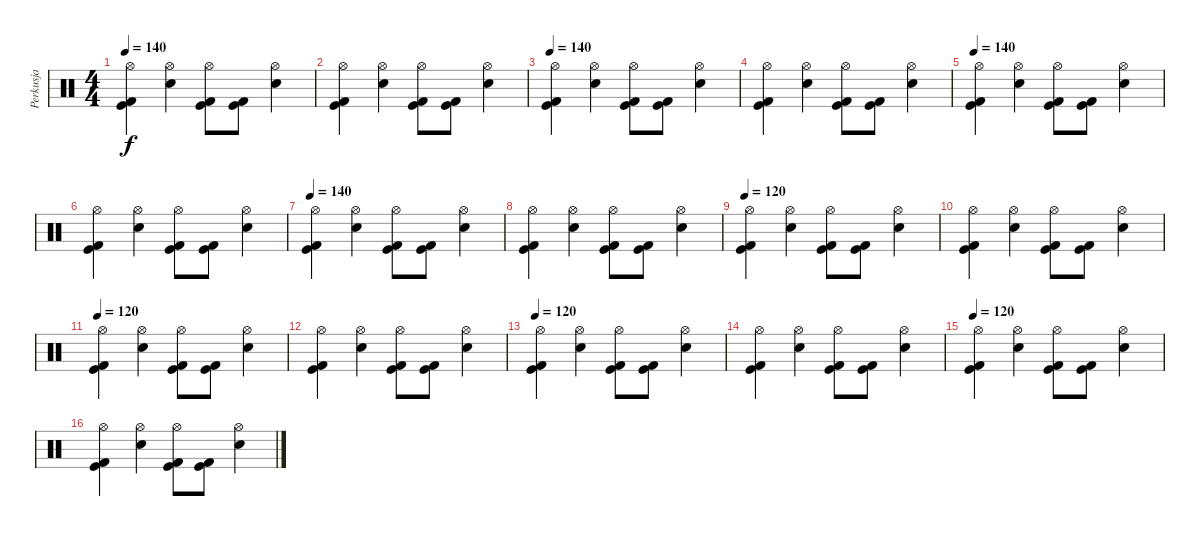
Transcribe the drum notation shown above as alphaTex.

\track ("Perkusja" "Perkusja") {instrument percussion}
\staff {score}
\articulation defaults
\ts (4 4)
\tempo 140
\clef neutral
\ks c
("Hi-Hat (open)" "Kick (hit)" "Kick (hit) 2").4{dy f} ("Hi-Hat (open)" "Snare (hit) 2").4 ("Hi-Hat (open)" "Kick (hit)" "Kick (hit) 2").8 ("Kick (hit)" "Kick (hit) 2").8 ("Hi-Hat (open)" "Snare (hit) 2").4 |
("Hi-Hat (open)" "Kick (hit)" "Kick (hit) 2").4 ("Hi-Hat (open)" "Snare (hit) 2").4 ("Hi-Hat (open)" "Kick (hit)" "Kick (hit) 2").8 ("Kick (hit)" "Kick (hit) 2").8 ("Hi-Hat (open)" "Snare (hit) 2").4 |
\tempo 140
("Hi-Hat (open)" "Kick (hit)" "Kick (hit) 2").4 ("Hi-Hat (open)" "Snare (hit) 2").4 ("Hi-Hat (open)" "Kick (hit)" "Kick (hit) 2").8 ("Kick (hit)" "Kick (hit) 2").8 ("Hi-Hat (open)" "Snare (hit) 2").4 |
("Hi-Hat (open)" "Kick (hit)" "Kick (hit) 2").4 ("Hi-Hat (open)" "Snare (hit) 2").4 ("Hi-Hat (open)" "Kick (hit)" "Kick (hit) 2").8 ("Kick (hit)" "Kick (hit) 2").8 ("Hi-Hat (open)" "Snare (hit) 2").4 |
\tempo 140
("Hi-Hat (open)" "Kick (hit)" "Kick (hit) 2").4 ("Hi-Hat (open)" "Snare (hit) 2").4 ("Hi-Hat (open)" "Kick (hit)" "Kick (hit) 2").8 ("Kick (hit)" "Kick (hit) 2").8 ("Hi-Hat (open)" "Snare (hit) 2").4 |
("Hi-Hat (open)" "Kick (hit)" "Kick (hit) 2").4 ("Hi-Hat (open)" "Snare (hit) 2").4 ("Hi-Hat (open)" "Kick (hit)" "Kick (hit) 2").8 ("Kick (hit)" "Kick (hit) 2").8 ("Hi-Hat (open)" "Snare (hit) 2").4 |
\tempo 140
("Hi-Hat (open)" "Kick (hit)" "Kick (hit) 2").4 ("Hi-Hat (open)" "Snare (hit) 2").4 ("Hi-Hat (open)" "Kick (hit)" "Kick (hit) 2").8 ("Kick (hit)" "Kick (hit) 2").8 ("Hi-Hat (open)" "Snare (hit) 2").4 |
("Hi-Hat (open)" "Kick (hit)" "Kick (hit) 2").4 ("Hi-Hat (open)" "Snare (hit) 2").4 ("Hi-Hat (open)" "Kick (hit)" "Kick (hit) 2").8 ("Kick (hit)" "Kick (hit) 2").8 ("Hi-Hat (open)" "Snare (hit) 2").4 |
\tempo 120
("Hi-Hat (open)" "Kick (hit)" "Kick (hit) 2").4 ("Hi-Hat (open)" "Snare (hit) 2").4 ("Hi-Hat (open)" "Kick (hit)" "Kick (hit) 2").8 ("Kick (hit)" "Kick (hit) 2").8 ("Hi-Hat (open)" "Snare (hit) 2").4 |
("Hi-Hat (open)" "Kick (hit)" "Kick (hit) 2").4 ("Hi-Hat (open)" "Snare (hit) 2").4 ("Hi-Hat (open)" "Kick (hit)" "Kick (hit) 2").8 ("Kick (hit)" "Kick (hit) 2").8 ("Hi-Hat (open)" "Snare (hit) 2").4 |
\tempo 120
("Hi-Hat (open)" "Kick (hit)" "Kick (hit) 2").4 ("Hi-Hat (open)" "Snare (hit) 2").4 ("Hi-Hat (open)" "Kick (hit)" "Kick (hit) 2").8 ("Kick (hit)" "Kick (hit) 2").8 ("Hi-Hat (open)" "Snare (hit) 2").4 |
("Hi-Hat (open)" "Kick (hit)" "Kick (hit) 2").4 ("Hi-Hat (open)" "Snare (hit) 2").4 ("Hi-Hat (open)" "Kick (hit)" "Kick (hit) 2").8 ("Kick (hit)" "Kick (hit) 2").8 ("Hi-Hat (open)" "Snare (hit) 2").4 |
\tempo 120
("Hi-Hat (open)" "Kick (hit)" "Kick (hit) 2").4 ("Hi-Hat (open)" "Snare (hit) 2").4 ("Hi-Hat (open)" "Kick (hit)" "Kick (hit) 2").8 ("Kick (hit)" "Kick (hit) 2").8 ("Hi-Hat (open)" "Snare (hit) 2").4 |
("Hi-Hat (open)" "Kick (hit)" "Kick (hit) 2").4 ("Hi-Hat (open)" "Snare (hit) 2").4 ("Hi-Hat (open)" "Kick (hit)" "Kick (hit) 2").8 ("Kick (hit)" "Kick (hit) 2").8 ("Hi-Hat (open)" "Snare (hit) 2").4 |
\tempo 120
("Hi-Hat (open)" "Kick (hit)" "Kick (hit) 2").4 ("Hi-Hat (open)" "Snare (hit) 2").4 ("Hi-Hat (open)" "Kick (hit)" "Kick (hit) 2").8 ("Kick (hit)" "Kick (hit) 2").8 ("Hi-Hat (open)" "Snare (hit) 2").4 |
("Hi-Hat (open)" "Kick (hit)" "Kick (hit) 2").4 ("Hi-Hat (open)" "Snare (hit) 2").4 ("Hi-Hat (open)" "Kick (hit)" "Kick (hit) 2").8 ("Kick (hit)" "Kick (hit) 2").8 ("Hi-Hat (open)" "Snare (hit) 2").4
